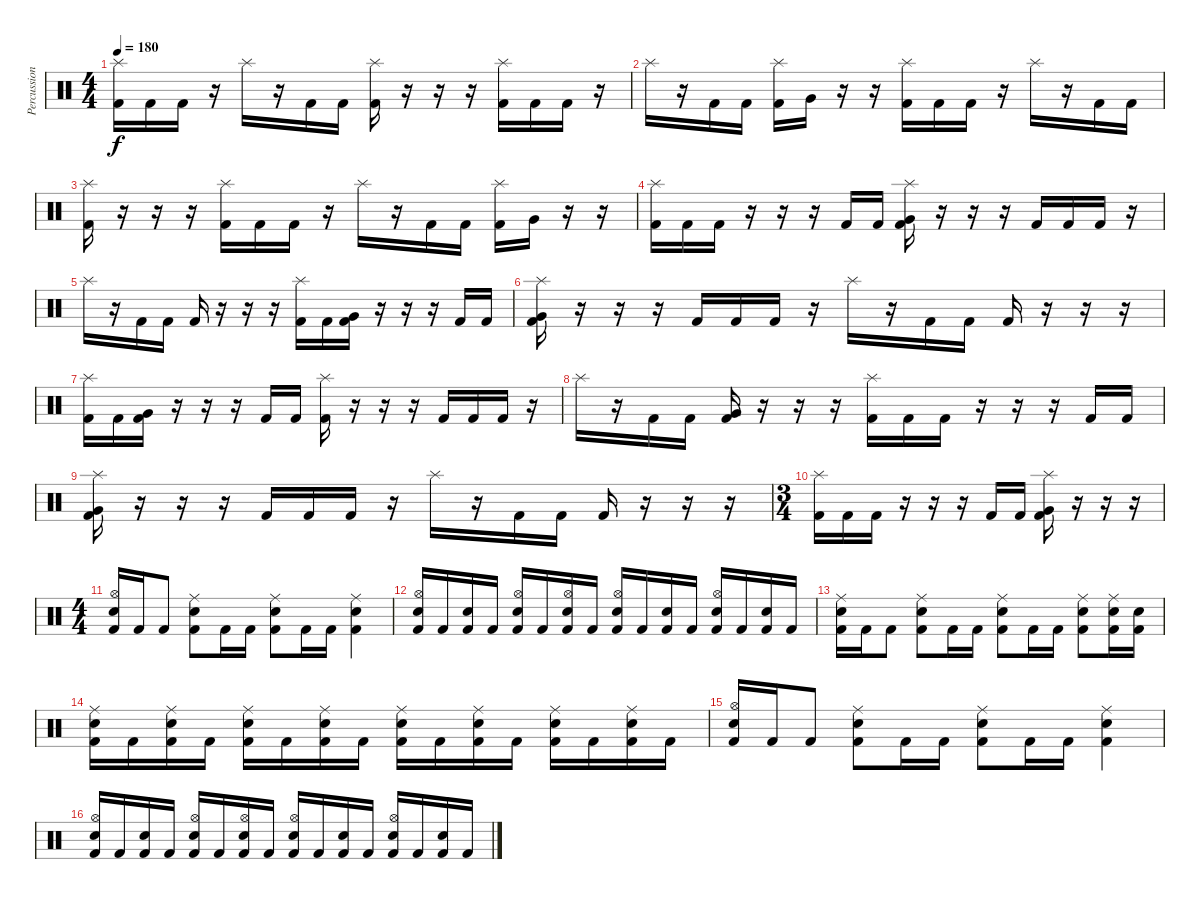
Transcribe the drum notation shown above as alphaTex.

\track ("Percussion" "Percussion") {instrument percussion}
\staff {score}
\articulation defaults
\ts (4 4)
\tempo 180
\clef neutral
\ks c
("Splash (hit)" "Kick (hit) 2").16{dy f} "Kick (hit) 2".16 "Kick (hit) 2".16 r.16 "Splash (hit)".16 r.16 "Kick (hit) 2".16 "Kick (hit) 2".16 ("Splash (hit)" "Kick (hit) 2").16 r.16 r.16 r.16 ("Splash (hit)" "Kick (hit) 2").16 "Kick (hit) 2".16 "Kick (hit) 2".16 r.16 |
"Splash (hit)".16 r.16 "Kick (hit) 2".16 "Kick (hit) 2".16 ("Splash (hit)" "Kick (hit) 2").16 "Very Low Tom (hit)".16 r.16 r.16 ("Splash (hit)" "Kick (hit) 2").16 "Kick (hit) 2".16 "Kick (hit) 2".16 r.16 "Splash (hit)".16 r.16 "Kick (hit) 2".16 "Kick (hit) 2".16 |
("Splash (hit)" "Kick (hit) 2").16 r.16 r.16 r.16 ("Splash (hit)" "Kick (hit) 2").16 "Kick (hit) 2".16 "Kick (hit) 2".16 r.16 "Splash (hit)".16 r.16 "Kick (hit) 2".16 "Kick (hit) 2".16 ("Splash (hit)" "Kick (hit) 2").16 "Very Low Tom (hit)".16 r.16 r.16 |
("Splash (hit)" "Kick (hit) 2").16 "Kick (hit) 2".16 "Kick (hit) 2".16 r.16 r.16 r.16 "Kick (hit) 2".16 "Kick (hit) 2".16 ("Splash (hit)" "Very Low Tom (hit)" "Kick (hit) 2").16 r.16 r.16 r.16 "Kick (hit) 2".16 "Kick (hit) 2".16 "Kick (hit) 2".16 r.16 |
"Splash (hit)".16 r.16 "Kick (hit) 2".16 "Kick (hit) 2".16 "Kick (hit) 2".16 r.16 r.16 r.16 ("Splash (hit)" "Kick (hit) 2").16 "Kick (hit) 2".16 ("Very Low Tom (hit)" "Kick (hit) 2").16 r.16 r.16 r.16 "Kick (hit) 2".16 "Kick (hit) 2".16 |
("Splash (hit)" "Very Low Tom (hit)" "Kick (hit) 2").16 r.16 r.16 r.16 "Kick (hit) 2".16 "Kick (hit) 2".16 "Kick (hit) 2".16 r.16 "Splash (hit)".16 r.16 "Kick (hit) 2".16 "Kick (hit) 2".16 "Kick (hit) 2".16 r.16 r.16 r.16 |
("Splash (hit)" "Kick (hit) 2").16 "Kick (hit) 2".16 ("Very Low Tom (hit)" "Kick (hit) 2").16 r.16 r.16 r.16 "Kick (hit) 2".16 "Kick (hit) 2".16 ("Splash (hit)" "Kick (hit) 2").16 r.16 r.16 r.16 "Kick (hit) 2".16 "Kick (hit) 2".16 "Kick (hit) 2".16 r.16 |
"Splash (hit)".16 r.16 "Kick (hit) 2".16 "Kick (hit) 2".16 ("Very Low Tom (hit)" "Kick (hit) 2").16 r.16 r.16 r.16 ("Splash (hit)" "Kick (hit) 2").16 "Kick (hit) 2".16 "Kick (hit) 2".16 r.16 r.16 r.16 "Kick (hit) 2".16 "Kick (hit) 2".16 |
("Splash (hit)" "Very Low Tom (hit)" "Kick (hit) 2").16 r.16 r.16 r.16 "Kick (hit) 2".16 "Kick (hit) 2".16 "Kick (hit) 2".16 r.16 "Splash (hit)".16 r.16 "Kick (hit) 2".16 "Kick (hit) 2".16 "Kick (hit) 2".16 r.16 r.16 r.16 |
\ts (3 4)
("Splash (hit)" "Kick (hit) 2").16 "Kick (hit) 2".16 "Kick (hit) 2".16 r.16 r.16 r.16 "Kick (hit) 2".16 "Kick (hit) 2".16 ("Splash (hit)" "Very Low Tom (hit)" "Kick (hit) 2").16 r.16 r.16 r.16 |
\ts (4 4)
("Hi-Hat (open)" "Electric Snare (hit)" "Kick (hit) 2").16 "Kick (hit) 2".16 "Kick (hit) 2".8 ("Ride (middle)" "Electric Snare (hit)" "Kick (hit) 2").8 "Kick (hit) 2".16 "Kick (hit) 2".16 ("Ride (middle)" "Electric Snare (hit)" "Kick (hit) 2").8 "Kick (hit) 2".16 "Kick (hit) 2".16 ("Ride (middle)" "Electric Snare (hit)" "Kick (hit) 2").4 |
("Hi-Hat (open)" "Electric Snare (hit)" "Kick (hit) 2").16 "Kick (hit) 2".16 ("Electric Snare (hit)" "Kick (hit) 2").16 "Kick (hit) 2".16 ("Hi-Hat (open)" "Electric Snare (hit)" "Kick (hit) 2").16 "Kick (hit) 2".16 ("Hi-Hat (open)" "Electric Snare (hit)" "Kick (hit) 2").16 "Kick (hit) 2".16 ("Hi-Hat (open)" "Electric Snare (hit)" "Kick (hit) 2").16 "Kick (hit) 2".16 ("Electric Snare (hit)" "Kick (hit) 2").16 "Kick (hit) 2".16 ("Hi-Hat (open)" "Electric Snare (hit)" "Kick (hit) 2").16 "Kick (hit) 2".16 ("Electric Snare (hit)" "Kick (hit) 2").16 "Kick (hit) 2".16 |
("Ride (middle)" "Electric Snare (hit)" "Kick (hit) 2").16 "Kick (hit) 2".16 "Kick (hit) 2".8 ("Ride (middle)" "Electric Snare (hit)" "Kick (hit) 2").8 "Kick (hit) 2".16 "Kick (hit) 2".16 ("Ride (middle)" "Electric Snare (hit)" "Kick (hit) 2").8 "Kick (hit) 2".16 "Kick (hit) 2".16 ("Ride (middle)" "Electric Snare (hit)" "Kick (hit) 2").8 ("Ride (middle)" "Electric Snare (hit)" "Kick (hit) 2").16 ("Electric Snare (hit)" "Kick (hit) 2").16 |
("Ride (middle)" "Electric Snare (hit)" "Kick (hit) 2").16 "Kick (hit) 2".16 ("Ride (middle)" "Electric Snare (hit)" "Kick (hit) 2").16 "Kick (hit) 2".16 ("Ride (middle)" "Electric Snare (hit)" "Kick (hit) 2").16 "Kick (hit) 2".16 ("Ride (middle)" "Electric Snare (hit)" "Kick (hit) 2").16 "Kick (hit) 2".16 ("Ride (middle)" "Electric Snare (hit)" "Kick (hit) 2").16 "Kick (hit) 2".16 ("Ride (middle)" "Electric Snare (hit)" "Kick (hit) 2").16 "Kick (hit) 2".16 ("Ride (middle)" "Electric Snare (hit)" "Kick (hit) 2").16 "Kick (hit) 2".16 ("Ride (middle)" "Electric Snare (hit)" "Kick (hit) 2").16 "Kick (hit) 2".16 |
("Hi-Hat (open)" "Electric Snare (hit)" "Kick (hit) 2").16 "Kick (hit) 2".16 "Kick (hit) 2".8 ("Ride (middle)" "Electric Snare (hit)" "Kick (hit) 2").8 "Kick (hit) 2".16 "Kick (hit) 2".16 ("Ride (middle)" "Electric Snare (hit)" "Kick (hit) 2").8 "Kick (hit) 2".16 "Kick (hit) 2".16 ("Ride (middle)" "Electric Snare (hit)" "Kick (hit) 2").4 |
("Hi-Hat (open)" "Electric Snare (hit)" "Kick (hit) 2").16 "Kick (hit) 2".16 ("Electric Snare (hit)" "Kick (hit) 2").16 "Kick (hit) 2".16 ("Hi-Hat (open)" "Electric Snare (hit)" "Kick (hit) 2").16 "Kick (hit) 2".16 ("Hi-Hat (open)" "Electric Snare (hit)" "Kick (hit) 2").16 "Kick (hit) 2".16 ("Hi-Hat (open)" "Electric Snare (hit)" "Kick (hit) 2").16 "Kick (hit) 2".16 ("Electric Snare (hit)" "Kick (hit) 2").16 "Kick (hit) 2".16 ("Hi-Hat (open)" "Electric Snare (hit)" "Kick (hit) 2").16 "Kick (hit) 2".16 ("Electric Snare (hit)" "Kick (hit) 2").16 "Kick (hit) 2".16
